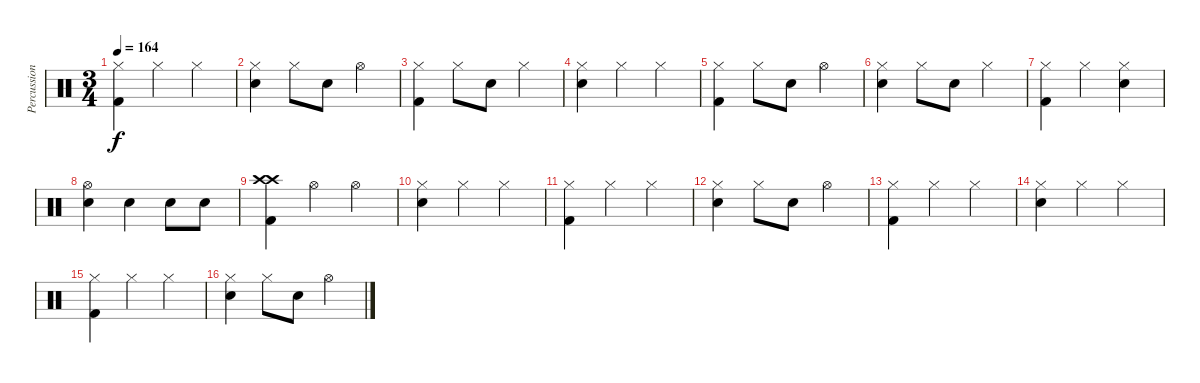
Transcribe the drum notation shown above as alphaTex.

\track ("Percussion" "Percussion") {instrument percussion}
\staff {score}
\articulation defaults
\ts (3 4)
\tempo 164
\clef neutral
\ks c
("Hi-Hat (closed)" "Kick (hit) 2").4{dy f} "Hi-Hat (closed)".4 "Hi-Hat (closed)".4 |
("Hi-Hat (closed)" "Snare (hit) 2").4 "Hi-Hat (closed)".8 "Snare (hit) 2".8 "Hi-Hat (open)".4 |
("Hi-Hat (closed)" "Kick (hit) 2").4 "Hi-Hat (closed)".8 "Snare (hit) 2".8 "Hi-Hat (closed)".4 |
("Hi-Hat (closed)" "Snare (hit) 2").4 "Hi-Hat (closed)".4 "Hi-Hat (closed)".4 |
("Hi-Hat (closed)" "Kick (hit) 2").4 "Hi-Hat (closed)".8 "Snare (hit) 2".8 "Hi-Hat (open)".4 |
("Hi-Hat (closed)" "Snare (hit) 2").4 "Hi-Hat (closed)".8 "Snare (hit) 2".8 "Hi-Hat (closed)".4 |
("Hi-Hat (closed)" "Kick (hit) 2").4 "Hi-Hat (closed)".4 ("Hi-Hat (closed)" "Snare (hit) 2").4 |
("Hi-Hat (open)" "Snare (hit) 2").4 "Snare (hit) 2".4 "Snare (hit) 2".8 "Snare (hit) 2".8 |
("Crash high (hit)" "Crash high (hit)" "Kick (hit) 2").4 "Hi-Hat (open)".4 "Hi-Hat (open)".4 |
("Hi-Hat (closed)" "Snare (hit) 2").4 "Hi-Hat (closed)".4 "Hi-Hat (closed)".4 |
("Hi-Hat (closed)" "Kick (hit) 2").4 "Hi-Hat (closed)".4 "Hi-Hat (closed)".4 |
("Hi-Hat (closed)" "Snare (hit) 2").4 "Hi-Hat (closed)".8 "Snare (hit) 2".8 "Hi-Hat (open)".4 |
("Hi-Hat (closed)" "Kick (hit) 2").4 "Hi-Hat (closed)".4 "Hi-Hat (closed)".4 |
("Hi-Hat (closed)" "Snare (hit) 2").4 "Hi-Hat (closed)".4 "Hi-Hat (closed)".4 |
("Hi-Hat (closed)" "Kick (hit) 2").4 "Hi-Hat (closed)".4 "Hi-Hat (closed)".4 |
("Hi-Hat (closed)" "Snare (hit) 2").4 "Hi-Hat (closed)".8 "Snare (hit) 2".8 "Hi-Hat (open)".4
